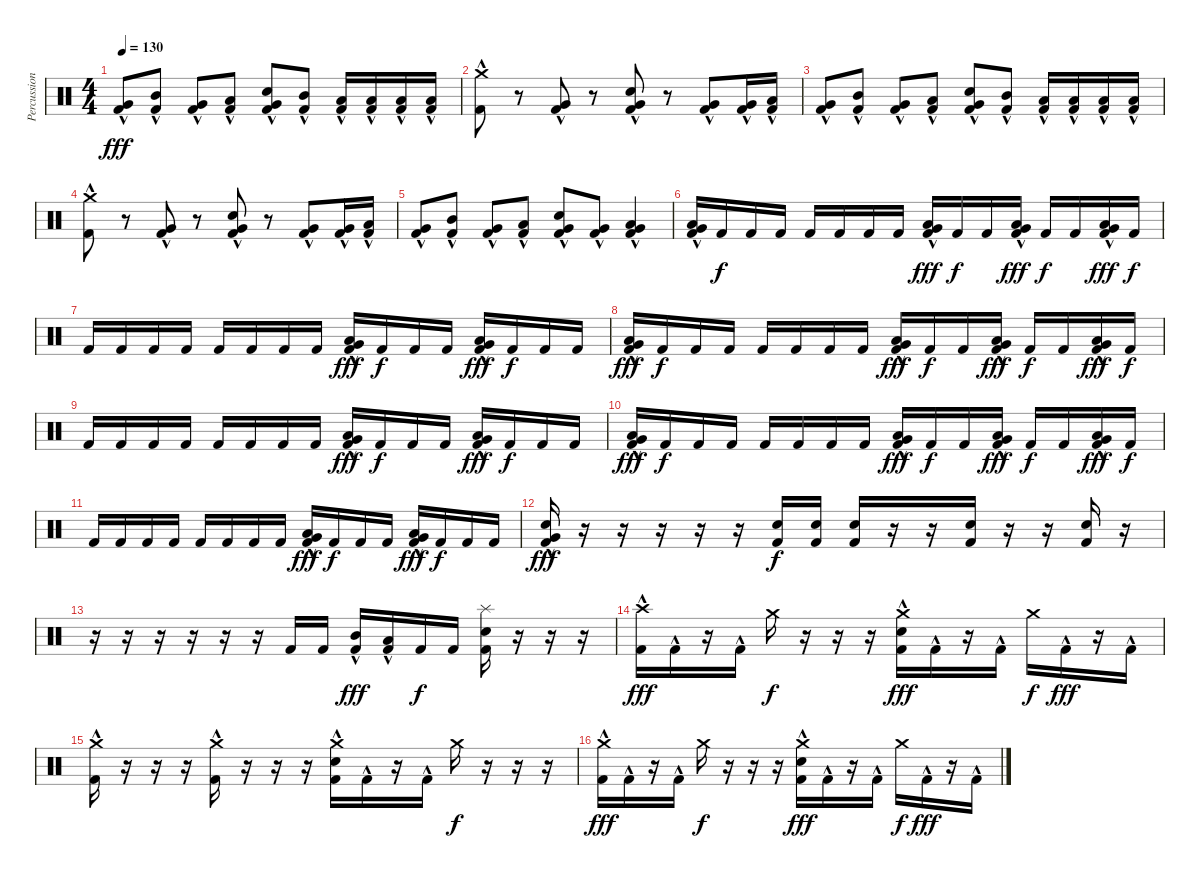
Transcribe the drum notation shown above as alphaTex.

\track ("Percussion" "Percussion") {instrument percussion}
\staff {score}
\articulation defaults
\ts (4 4)
\tempo 130
\clef neutral
\ks c
("Kick (hit) 2"{hac} "Very Low Tom (hit)"{hac}).8{dy fff} ("Kick (hit) 2"{hac} "Mid Tom (hit)"{hac}).8 ("Kick (hit) 2"{hac} "Very Low Tom (hit)"{hac}).8 ("Kick (hit) 2"{hac} "Low Tom (hit)"{hac}).8 ("Kick (hit) 2"{hac} "Electric Snare (hit)"{hac} "Very Low Tom (hit)"{hac}).8 ("Kick (hit) 2"{hac} "Mid Tom (hit)"{hac}).8 ("Kick (hit) 2"{hac} "Low Tom (hit)"{hac}).16 ("Kick (hit) 2"{hac} "Low Tom (hit)"{hac}).16 ("Kick (hit) 2"{hac} "Low Tom (hit)"{hac}).16 ("Kick (hit) 2"{hac} "Low Tom (hit)"{hac}).16 |
("Kick (hit) 2"{hac} "Crash medium (hit)").8 r.8 ("Kick (hit) 2"{hac} "Very Low Tom (hit)"{hac}).8 r.8 ("Kick (hit) 2"{hac} "Electric Snare (hit)" "Very Low Tom (hit)"{hac}).8 r.8 ("Kick (hit) 2"{hac} "Very Low Tom (hit)"{hac}).8 ("Kick (hit) 2"{hac} "Very Low Tom (hit)").16 ("Kick (hit) 2"{hac} "Low Tom (hit)").16 |
("Kick (hit) 2"{hac} "Very Low Tom (hit)"{hac}).8 ("Kick (hit) 2"{hac} "Mid Tom (hit)"{hac}).8 ("Kick (hit) 2"{hac} "Very Low Tom (hit)"{hac}).8 ("Kick (hit) 2"{hac} "Low Tom (hit)"{hac}).8 ("Kick (hit) 2"{hac} "Electric Snare (hit)"{hac} "Very Low Tom (hit)"{hac}).8 ("Kick (hit) 2"{hac} "Mid Tom (hit)"{hac}).8 ("Kick (hit) 2"{hac} "Low Tom (hit)"{hac}).16 ("Kick (hit) 2"{hac} "Low Tom (hit)"{hac}).16 ("Kick (hit) 2"{hac} "Low Tom (hit)"{hac}).16 ("Kick (hit) 2"{hac} "Low Tom (hit)"{hac}).16 |
("Kick (hit) 2"{hac} "Crash medium (hit)").8 r.8 ("Kick (hit) 2"{hac} "Very Low Tom (hit)"{hac}).8 r.8 ("Kick (hit) 2"{hac} "Electric Snare (hit)" "Very Low Tom (hit)"{hac}).8 r.8 ("Kick (hit) 2"{hac} "Very Low Tom (hit)"{hac}).8 ("Kick (hit) 2"{hac} "Very Low Tom (hit)").16 ("Kick (hit) 2"{hac} "Low Tom (hit)").16 |
("Kick (hit) 2"{hac} "Very Low Tom (hit)"{hac}).8 ("Kick (hit) 2"{hac} "Mid Tom (hit)"{hac}).8 ("Kick (hit) 2"{hac} "Very Low Tom (hit)"{hac}).8 ("Kick (hit) 2"{hac} "Low Tom (hit)"{hac}).8 ("Kick (hit) 2"{hac} "Electric Snare (hit)"{hac} "Very Low Tom (hit)"{hac}).8 ("Kick (hit) 2"{hac} "Very Low Tom (hit)"{hac}).8 ("Kick (hit) 2"{hac} "Low Tom (hit)"{hac} "Very Low Tom (hit)").4 |
("Kick (hit) 2"{hac} "Very Low Tom (hit)"{hac} "Low Tom (hit)"{hac}).16 "Kick (hit) 2".16{dy f} "Kick (hit) 2".16 "Kick (hit) 2".16 "Kick (hit) 2".16 "Kick (hit) 2".16 "Kick (hit) 2".16 "Kick (hit) 2".16 ("Kick (hit) 2"{hac} "Very Low Tom (hit)"{hac} "Low Tom (hit)"{hac}).16{dy fff} "Kick (hit) 2".16{dy f} "Kick (hit) 2".16 ("Kick (hit) 2"{hac} "Very Low Tom (hit)"{hac} "Low Tom (hit)"{hac}).16{dy fff} "Kick (hit) 2".16{dy f} "Kick (hit) 2".16 ("Kick (hit) 2"{hac} "Very Low Tom (hit)"{hac} "Low Tom (hit)"{hac}).16{dy fff} "Kick (hit) 2".16{dy f} |
"Kick (hit) 2".16 "Kick (hit) 2".16 "Kick (hit) 2".16 "Kick (hit) 2".16 "Kick (hit) 2".16 "Kick (hit) 2".16 "Kick (hit) 2".16 "Kick (hit) 2".16 ("Kick (hit) 2"{hac} "Very Low Tom (hit)"{hac} "Low Tom (hit)"{hac}).16{dy fff} "Kick (hit) 2".16{dy f} "Kick (hit) 2".16 "Kick (hit) 2".16 ("Kick (hit) 2"{hac} "Very Low Tom (hit)"{hac} "Low Tom (hit)"{hac}).16{dy fff} "Kick (hit) 2".16{dy f} "Kick (hit) 2".16 "Kick (hit) 2".16 |
("Kick (hit) 2"{hac} "Very Low Tom (hit)"{hac} "Low Tom (hit)"{hac}).16{dy fff} "Kick (hit) 2".16{dy f} "Kick (hit) 2".16 "Kick (hit) 2".16 "Kick (hit) 2".16 "Kick (hit) 2".16 "Kick (hit) 2".16 "Kick (hit) 2".16 ("Kick (hit) 2"{hac} "Very Low Tom (hit)"{hac} "Low Tom (hit)"{hac}).16{dy fff} "Kick (hit) 2".16{dy f} "Kick (hit) 2".16 ("Kick (hit) 2"{hac} "Very Low Tom (hit)"{hac} "Low Tom (hit)"{hac}).16{dy fff} "Kick (hit) 2".16{dy f} "Kick (hit) 2".16 ("Kick (hit) 2"{hac} "Very Low Tom (hit)"{hac} "Low Tom (hit)"{hac}).16{dy fff} "Kick (hit) 2".16{dy f} |
"Kick (hit) 2".16 "Kick (hit) 2".16 "Kick (hit) 2".16 "Kick (hit) 2".16 "Kick (hit) 2".16 "Kick (hit) 2".16 "Kick (hit) 2".16 "Kick (hit) 2".16 ("Kick (hit) 2"{hac} "Very Low Tom (hit)"{hac} "Low Tom (hit)"{hac}).16{dy fff} "Kick (hit) 2".16{dy f} "Kick (hit) 2".16 "Kick (hit) 2".16 ("Kick (hit) 2"{hac} "Very Low Tom (hit)"{hac} "Low Tom (hit)"{hac}).16{dy fff} "Kick (hit) 2".16{dy f} "Kick (hit) 2".16 "Kick (hit) 2".16 |
("Kick (hit) 2"{hac} "Very Low Tom (hit)"{hac} "Low Tom (hit)"{hac}).16{dy fff} "Kick (hit) 2".16{dy f} "Kick (hit) 2".16 "Kick (hit) 2".16 "Kick (hit) 2".16 "Kick (hit) 2".16 "Kick (hit) 2".16 "Kick (hit) 2".16 ("Kick (hit) 2"{hac} "Very Low Tom (hit)"{hac} "Low Tom (hit)"{hac}).16{dy fff} "Kick (hit) 2".16{dy f} "Kick (hit) 2".16 ("Kick (hit) 2"{hac} "Very Low Tom (hit)"{hac} "Low Tom (hit)"{hac}).16{dy fff} "Kick (hit) 2".16{dy f} "Kick (hit) 2".16 ("Kick (hit) 2"{hac} "Very Low Tom (hit)"{hac} "Low Tom (hit)"{hac}).16{dy fff} "Kick (hit) 2".16{dy f} |
"Kick (hit) 2".16 "Kick (hit) 2".16 "Kick (hit) 2".16 "Kick (hit) 2".16 "Kick (hit) 2".16 "Kick (hit) 2".16 "Kick (hit) 2".16 "Kick (hit) 2".16 ("Kick (hit) 2"{hac} "Very Low Tom (hit)"{hac} "Low Tom (hit)"{hac}).16{dy fff} "Kick (hit) 2".16{dy f} "Kick (hit) 2".16 "Kick (hit) 2".16 ("Kick (hit) 2"{hac} "Very Low Tom (hit)"{hac} "Low Tom (hit)"{hac}).16{dy fff} "Kick (hit) 2".16{dy f} "Kick (hit) 2".16 "Kick (hit) 2".16 |
("Kick (hit) 2"{hac} "Very Low Tom (hit)"{hac} "Electric Snare (hit)").16{dy fff} r.16 r.16 r.16 r.16 r.16 ("Kick (hit) 2" "Electric Snare (hit)").16{dy f} ("Kick (hit) 2" "Electric Snare (hit)").16 ("Kick (hit) 2" "Electric Snare (hit)").16 r.16 r.16 ("Kick (hit) 2" "Electric Snare (hit)").16 r.16 r.16 ("Kick (hit) 2" "Electric Snare (hit)").16 r.16 |
r.16 r.16 r.16 r.16 r.16 r.16 "Kick (hit) 2".16 "Kick (hit) 2".16 ("Kick (hit) 2" "Mid Tom (hit)"{hac}).16{dy fff} ("Kick (hit) 2" "Low Tom (hit)"{hac}).16 "Kick (hit) 2".16{dy f} "Kick (hit) 2".16 ("Kick (hit) 2" "Electric Snare (hit)" "Splash (hit)").16 r.16 r.16 r.16 |
("Kick (hit) 2"{hac} "Crash high (hit)").16{dy fff} "Kick (hit) 2"{hac}.16 r.16 "Kick (hit) 2"{hac}.16 "Crash medium (hit)".16{dy f} r.16 r.16 r.16 ("Kick (hit) 2"{hac} "Electric Snare (hit)" "Crash medium (hit)").16{dy fff} "Kick (hit) 2"{hac}.16 r.16 "Kick (hit) 2"{hac}.16 "Crash medium (hit)".16{dy f} "Kick (hit) 2"{hac}.16{dy fff} r.16 "Kick (hit) 2"{hac}.16 |
("Kick (hit) 2"{hac} "Crash medium (hit)").16 r.16 r.16 r.16 ("Kick (hit) 2"{hac} "Crash medium (hit)").16 r.16 r.16 r.16 ("Kick (hit) 2"{hac} "Electric Snare (hit)" "Crash medium (hit)").16 "Kick (hit) 2"{hac}.16 r.16 "Kick (hit) 2"{hac}.16 "Crash medium (hit)".16{dy f} r.16 r.16 r.16 |
("Kick (hit) 2"{hac} "Crash medium (hit)").16{dy fff} "Kick (hit) 2"{hac}.16 r.16 "Kick (hit) 2"{hac}.16 "Crash medium (hit)".16{dy f} r.16 r.16 r.16 ("Kick (hit) 2"{hac} "Electric Snare (hit)" "Crash medium (hit)").16{dy fff} "Kick (hit) 2"{hac}.16 r.16 "Kick (hit) 2"{hac}.16 "Crash medium (hit)".16{dy f} "Kick (hit) 2"{hac}.16{dy fff} r.16 "Kick (hit) 2"{hac}.16
